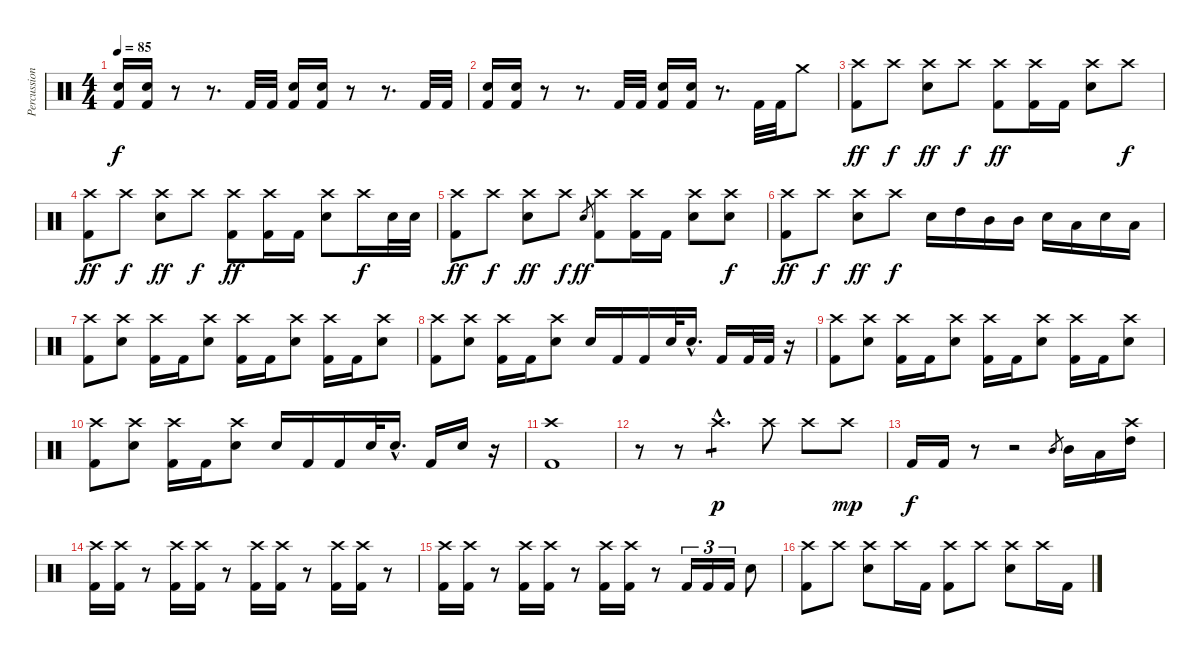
\track ("Percussion" "Percussion") {instrument percussion}
\staff {score}
\articulation defaults
\ts (4 4)
\tempo 85
\clef neutral
\ks c
("Electric Snare (hit)" "Kick (hit) 2").16{dy f} ("Electric Snare (hit)" "Kick (hit) 2").16 r.8 r.8{d} "Kick (hit) 2".32 "Kick (hit) 2".32 ("Electric Snare (hit)" "Kick (hit) 2").16 ("Electric Snare (hit)" "Kick (hit) 2").16 r.8 r.8{d} "Kick (hit) 2".32 "Kick (hit) 2".32 |
("Electric Snare (hit)" "Kick (hit) 2").16 ("Electric Snare (hit)" "Kick (hit) 2").16 r.8 r.8{d} "Kick (hit) 2".32 "Kick (hit) 2".32 ("Electric Snare (hit)" "Kick (hit) 2").16 ("Electric Snare (hit)" "Kick (hit) 2").16 r.8{d} "Kick (hit) 2".32 "Kick (hit) 2".32 "Crash medium (hit)".8 |
("Crash high (hit)" "Kick (hit) 2").8{dy ff} "Crash high (hit)".8{dy f} ("Crash high (hit)" "Electric Snare (hit)").8{dy ff} "Crash high (hit)".8{dy f} ("Crash high (hit)" "Kick (hit) 2").8{dy ff} ("Crash high (hit)" "Kick (hit) 2").16 "Kick (hit) 2".16 ("Crash high (hit)" "Electric Snare (hit)").8 "Crash high (hit)".8{dy f} |
("Crash high (hit)" "Kick (hit) 2").8{dy ff} "Crash high (hit)".8{dy f} ("Crash high (hit)" "Electric Snare (hit)").8{dy ff} "Crash high (hit)".8{dy f} ("Crash high (hit)" "Kick (hit) 2").8{dy ff} ("Crash high (hit)" "Kick (hit) 2").16 "Kick (hit) 2".16 ("Crash high (hit)" "Electric Snare (hit)").8 "Crash high (hit)".16{dy f} "Electric Snare (hit)".32 "Electric Snare (hit)".32 |
("Crash high (hit)" "Kick (hit) 2").8{dy ff} "Crash high (hit)".8{dy f} ("Crash high (hit)" "Electric Snare (hit)").8{dy ff} "Crash high (hit)".8{dy f} "Electric Snare (hit)".8{gr dy ff} ("Crash high (hit)" "Kick (hit) 2").8 ("Crash high (hit)" "Kick (hit) 2").16 "Kick (hit) 2".16 ("Crash high (hit)" "Electric Snare (hit)").8 ("Crash high (hit)" "Electric Snare (hit)").8{dy f} |
("Crash high (hit)" "Kick (hit) 2").8{dy ff} "Crash high (hit)".8{dy f} ("Crash high (hit)" "Electric Snare (hit)").8{dy ff} "Crash high (hit)".8{dy f} "Electric Snare (hit)".16 "High Tom (hit)".16 "Mid Tom (hit)".16 "Mid Tom (hit)".16 "Electric Snare (hit)".16 "Low Tom (hit)".16 "Electric Snare (hit)".16 "Low Tom (hit)".16 |
("Crash high (hit)" "Kick (hit) 2").8 ("Crash high (hit)" "Electric Snare (hit)").8 ("Crash high (hit)" "Kick (hit) 2").16 "Kick (hit) 2".16 ("Crash high (hit)" "Electric Snare (hit)").8 ("Crash high (hit)" "Kick (hit) 2").16 "Kick (hit) 2".16 ("Crash high (hit)" "Electric Snare (hit)").8 ("Crash high (hit)" "Kick (hit) 2").16 "Kick (hit) 2".16 ("Crash high (hit)" "Electric Snare (hit)").8 |
("Crash high (hit)" "Kick (hit) 2").8 ("Crash high (hit)" "Electric Snare (hit)").8 ("Crash high (hit)" "Kick (hit) 2").16 "Kick (hit) 2".16 ("Crash high (hit)" "Electric Snare (hit)").8 "Electric Snare (hit)".16 "Kick (hit) 2".16 "Kick (hit) 2".16 "Electric Snare (hit)".32 "Electric Snare (hit)"{hac}.16{d} "Kick (hit) 2".16 "Kick (hit) 2".32 "Kick (hit) 2".32 r.16 |
("Crash high (hit)" "Kick (hit) 2").8 ("Crash high (hit)" "Electric Snare (hit)").8 ("Crash high (hit)" "Kick (hit) 2").16 "Kick (hit) 2".16 ("Crash high (hit)" "Electric Snare (hit)").8 ("Crash high (hit)" "Kick (hit) 2").16 "Kick (hit) 2".16 ("Crash high (hit)" "Electric Snare (hit)").8 ("Crash high (hit)" "Kick (hit) 2").16 "Kick (hit) 2".16 ("Crash high (hit)" "Electric Snare (hit)").8 |
("Crash high (hit)" "Kick (hit) 2").8 ("Crash high (hit)" "Electric Snare (hit)").8 ("Crash high (hit)" "Kick (hit) 2").16 "Kick (hit) 2".16 ("Crash high (hit)" "Electric Snare (hit)").8 "Electric Snare (hit)".16 "Kick (hit) 2".16 "Kick (hit) 2".16 "Electric Snare (hit)".32 "Electric Snare (hit)"{hac}.16{d} "Kick (hit) 2".16 "Electric Snare (hit)".16 r.16 |
("Crash high (hit)" "Kick (hit) 2").1 |
r.8 r.8 "Crash high (hit)"{hac}.4{d tp 1 dy p} "Crash high (hit)".8 "Crash high (hit)".8 "Crash high (hit)".8{dy mp} |
"Kick (hit) 2".16{dy f} "Kick (hit) 2".16 r.8 r.2 "Mid Tom (hit)".8{gr} "Mid Tom (hit)".16 "Low Tom (hit)".16 ("Crash high (hit)" "High Tom (hit)").16 |
("Crash high (hit)" "Kick (hit) 2").16 ("Crash high (hit)" "Kick (hit) 2").16 r.8 ("Crash high (hit)" "Kick (hit) 2").16 ("Crash high (hit)" "Kick (hit) 2").16 r.8 ("Crash high (hit)" "Kick (hit) 2").16 ("Crash high (hit)" "Kick (hit) 2").16 r.8 ("Crash high (hit)" "Kick (hit) 2").16 ("Crash high (hit)" "Kick (hit) 2").16 r.8 |
("Crash high (hit)" "Kick (hit) 2").16 ("Crash high (hit)" "Kick (hit) 2").16 r.8 ("Crash high (hit)" "Kick (hit) 2").16 ("Crash high (hit)" "Kick (hit) 2").16 r.8 ("Crash high (hit)" "Kick (hit) 2").16 ("Crash high (hit)" "Kick (hit) 2").16 r.8 "Kick (hit) 2".16{tu (3 2)} "Kick (hit) 2".16{tu (3 2)} "Kick (hit) 2".16{tu (3 2)} "Electric Snare (hit)".8 |
("Crash high (hit)" "Kick (hit) 2").8 "Crash high (hit)".8 ("Crash high (hit)" "Electric Snare (hit)").8 "Crash high (hit)".16 "Kick (hit) 2".16 ("Crash high (hit)" "Kick (hit) 2").8 "Crash high (hit)".8 ("Crash high (hit)" "Electric Snare (hit)").8 "Crash high (hit)".16 "Kick (hit) 2".16
